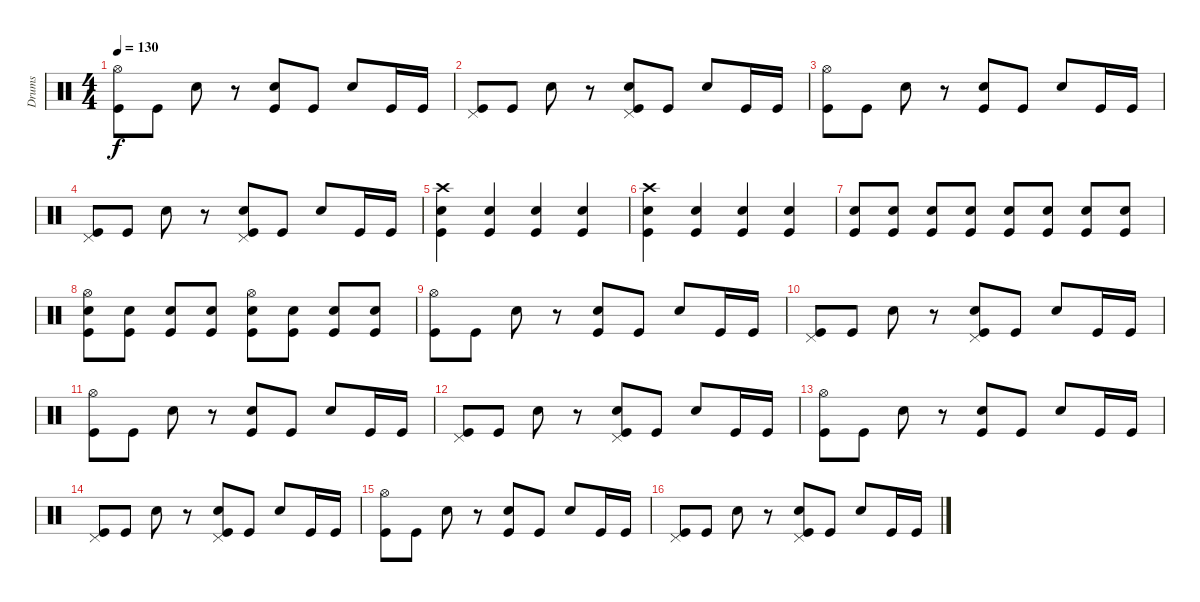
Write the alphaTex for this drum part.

\track ("Drums" "Drums") {instrument percussion}
\staff {score}
\articulation defaults
\ts (4 4)
\tempo 130
\clef neutral
\ks c
("Hi-Hat (open)" "Kick (hit)").8{dy f} "Kick (hit)".8 "Snare (hit) 2".8 r.8 ("Snare (hit) 2" "Kick (hit)").8 "Kick (hit)".8 "Snare (hit) 2".8 "Kick (hit)".16 "Kick (hit)".16 |
("Pedal Hi-Hat (hit)" "Kick (hit)").8 "Kick (hit)".8 "Snare (hit) 2".8 r.8 ("Pedal Hi-Hat (hit)" "Snare (hit) 2" "Kick (hit)").8 "Kick (hit)".8 "Snare (hit) 2".8 "Kick (hit)".16 "Kick (hit)".16 |
("Hi-Hat (open)" "Kick (hit)").8 "Kick (hit)".8 "Snare (hit) 2".8 r.8 ("Snare (hit) 2" "Kick (hit)").8 "Kick (hit)".8 "Snare (hit) 2".8 "Kick (hit)".16 "Kick (hit)".16 |
("Pedal Hi-Hat (hit)" "Kick (hit)").8 "Kick (hit)".8 "Snare (hit) 2".8 r.8 ("Pedal Hi-Hat (hit)" "Snare (hit) 2" "Kick (hit)").8 "Kick (hit)".8 "Snare (hit) 2".8 "Kick (hit)".16 "Kick (hit)".16 |
("Crash high (hit)" "Snare (hit) 2" "Kick (hit)").4 ("Snare (hit) 2" "Kick (hit)").4 ("Snare (hit) 2" "Kick (hit)").4 ("Snare (hit) 2" "Kick (hit)").4 |
("Crash high (hit)" "Snare (hit) 2" "Kick (hit)").4 ("Snare (hit) 2" "Kick (hit)").4 ("Snare (hit) 2" "Kick (hit)").4 ("Snare (hit) 2" "Kick (hit)").4 |
("Snare (hit) 2" "Kick (hit)").8 ("Snare (hit) 2" "Kick (hit)").8 ("Snare (hit) 2" "Kick (hit)").8 ("Snare (hit) 2" "Kick (hit)").8 ("Snare (hit) 2" "Kick (hit)").8 ("Snare (hit) 2" "Kick (hit)").8 ("Snare (hit) 2" "Kick (hit)").8 ("Snare (hit) 2" "Kick (hit)").8 |
("Hi-Hat (open)" "Snare (hit) 2" "Kick (hit)").8 ("Snare (hit) 2" "Kick (hit)").8 ("Snare (hit) 2" "Kick (hit)").8 ("Snare (hit) 2" "Kick (hit)").8 ("Hi-Hat (open)" "Snare (hit) 2" "Kick (hit)").8 ("Snare (hit) 2" "Kick (hit)").8 ("Snare (hit) 2" "Kick (hit)").8 ("Snare (hit) 2" "Kick (hit)").8 |
("Hi-Hat (open)" "Kick (hit)").8 "Kick (hit)".8 "Snare (hit) 2".8 r.8 ("Snare (hit) 2" "Kick (hit)").8 "Kick (hit)".8 "Snare (hit) 2".8 "Kick (hit)".16 "Kick (hit)".16 |
("Pedal Hi-Hat (hit)" "Kick (hit)").8 "Kick (hit)".8 "Snare (hit) 2".8 r.8 ("Pedal Hi-Hat (hit)" "Snare (hit) 2" "Kick (hit)").8 "Kick (hit)".8 "Snare (hit) 2".8 "Kick (hit)".16 "Kick (hit)".16 |
("Hi-Hat (open)" "Kick (hit)").8 "Kick (hit)".8 "Snare (hit) 2".8 r.8 ("Snare (hit) 2" "Kick (hit)").8 "Kick (hit)".8 "Snare (hit) 2".8 "Kick (hit)".16 "Kick (hit)".16 |
("Pedal Hi-Hat (hit)" "Kick (hit)").8 "Kick (hit)".8 "Snare (hit) 2".8 r.8 ("Pedal Hi-Hat (hit)" "Snare (hit) 2" "Kick (hit)").8 "Kick (hit)".8 "Snare (hit) 2".8 "Kick (hit)".16 "Kick (hit)".16 |
("Hi-Hat (open)" "Kick (hit)").8 "Kick (hit)".8 "Snare (hit) 2".8 r.8 ("Snare (hit) 2" "Kick (hit)").8 "Kick (hit)".8 "Snare (hit) 2".8 "Kick (hit)".16 "Kick (hit)".16 |
("Pedal Hi-Hat (hit)" "Kick (hit)").8 "Kick (hit)".8 "Snare (hit) 2".8 r.8 ("Pedal Hi-Hat (hit)" "Snare (hit) 2" "Kick (hit)").8 "Kick (hit)".8 "Snare (hit) 2".8 "Kick (hit)".16 "Kick (hit)".16 |
("Hi-Hat (open)" "Kick (hit)").8 "Kick (hit)".8 "Snare (hit) 2".8 r.8 ("Snare (hit) 2" "Kick (hit)").8 "Kick (hit)".8 "Snare (hit) 2".8 "Kick (hit)".16 "Kick (hit)".16 |
("Pedal Hi-Hat (hit)" "Kick (hit)").8 "Kick (hit)".8 "Snare (hit) 2".8 r.8 ("Pedal Hi-Hat (hit)" "Snare (hit) 2" "Kick (hit)").8 "Kick (hit)".8 "Snare (hit) 2".8 "Kick (hit)".16 "Kick (hit)".16
